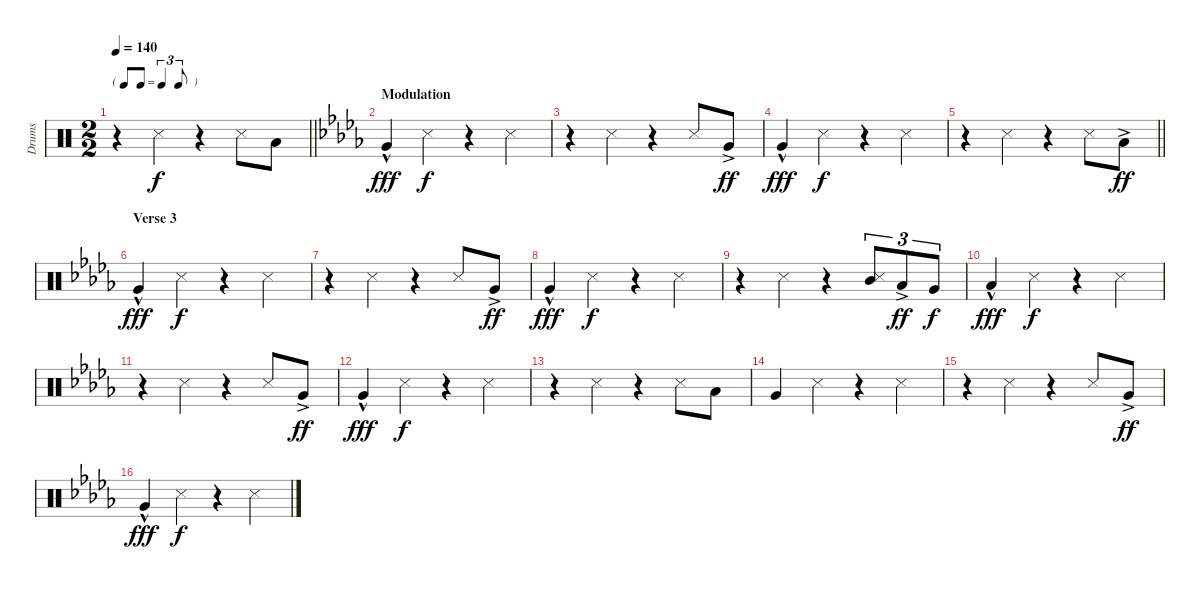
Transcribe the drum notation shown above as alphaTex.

\track ("Drums" "Drums") {instrument percussion}
\staff {score}
\articulation defaults
\ts (2 2)
\tf triplet8th
\tempo 140
\clef neutral
\barLineRight lightlight
\ks c
r.4{dy f} "Metronome (hit)".4 r.4 "Metronome (hit)".8 "Low Floor Tom (hit)".8 |
\section ("" "Modulation")
\ks bbminor "Very Low Tom (hit)"{hac}.4{dy fff} "Metronome (hit)".4{dy f}
r.4 "Metronome (hit)".4 |
r.4 "Metronome (hit)".4 r.4 "Metronome (hit)".8 "Very Low Tom (hit)"{ac}.8{dy ff} |
"Very Low Tom (hit)"{hac}.4{dy fff} "Metronome (hit)".4{dy f} r.4 "Metronome (hit)".4 |
\barLineRight lightlight
r.4 "Metronome (hit)".4 r.4 "Metronome (hit)".8 "Low Floor Tom (hit)"{ac}.8{dy ff} |
\section ("" "Verse 3")
"Very Low Tom (hit)"{hac}.4{dy fff} "Metronome (hit)".4{dy f} r.4 "Metronome (hit)".4 |
r.4 "Metronome (hit)".4 r.4 "Metronome (hit)".8 "Very Low Tom (hit)"{ac}.8{dy ff} |
"Very Low Tom (hit)"{hac}.4{dy fff} "Metronome (hit)".4{dy f} r.4 "Metronome (hit)".4 |
r.4 "Metronome (hit)".4 r.4 ("Metronome (hit)" "Mid Tom (hit)").8{tu (3 2)} "Low Tom (hit)"{ac}.8{tu (3 2) dy ff} "Very Low Tom (hit)".8{tu (3 2) dy f} |
"Low Floor Tom (hit)"{hac}.4{dy fff} "Metronome (hit)".4{dy f} r.4 "Metronome (hit)".4 |
r.4 "Metronome (hit)".4 r.4 "Metronome (hit)".8 "Very Low Tom (hit)"{ac}.8{dy ff} |
"Very Low Tom (hit)"{hac}.4{dy fff} "Metronome (hit)".4{dy f} r.4 "Metronome (hit)".4 |
r.4 "Metronome (hit)".4 r.4 "Metronome (hit)".8 "Low Tom (hit)".8 |
"Very Low Tom (hit)".4 "Metronome (hit)".4 r.4 "Metronome (hit)".4 |
r.4 "Metronome (hit)".4 r.4 "Metronome (hit)".8 "Very Low Tom (hit)"{ac}.8{dy ff} |
"Very Low Tom (hit)"{hac}.4{dy fff} "Metronome (hit)".4{dy f} r.4 "Metronome (hit)".4
